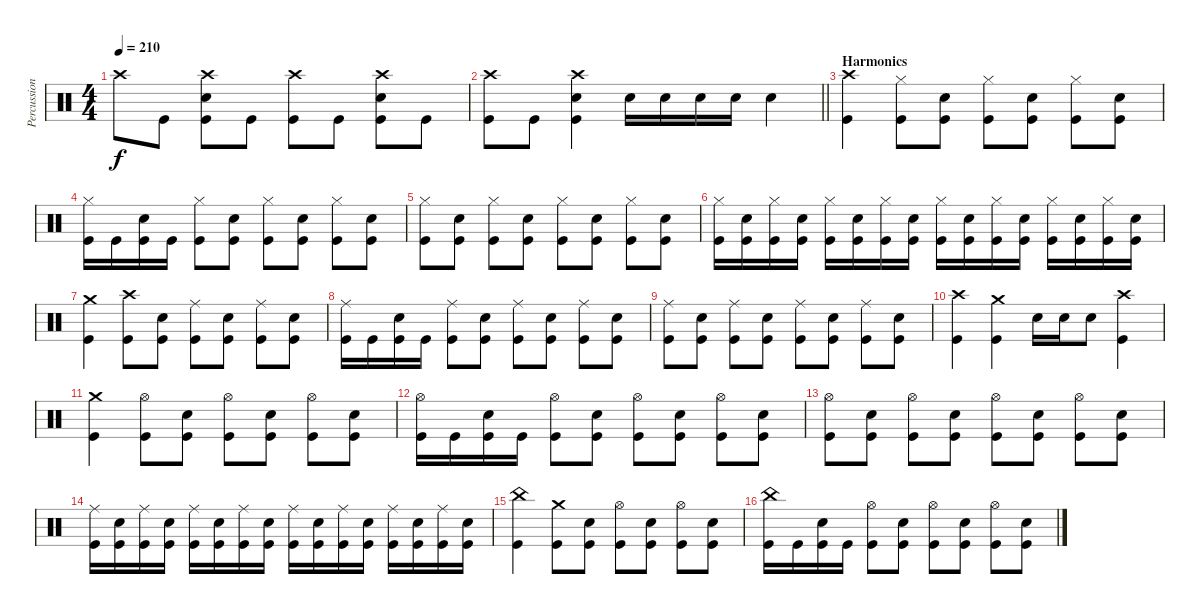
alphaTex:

\track ("Percussion" "Percussion") {instrument percussion}
\staff {score}
\articulation defaults
\ts (4 4)
\tempo 210
\clef neutral
\ks c "Crash high (hit)".8{dy f} "Kick (hit)".8
("Crash high (hit)" "Electric Snare (hit)" "Kick (hit)").8 "Kick (hit)".8 ("Crash high (hit)" "Kick (hit)").8 "Kick (hit)".8 ("Crash high (hit)" "Electric Snare (hit)" "Kick (hit)").8 "Kick (hit)".8 |
\barLineRight lightlight
("Crash high (hit)" "Kick (hit)").8 "Kick (hit)".8 ("Crash high (hit)" "Electric Snare (hit)" "Kick (hit)").4 "Electric Snare (hit)".16 "Electric Snare (hit)".16 "Electric Snare (hit)".16 "Electric Snare (hit)".16 "Electric Snare (hit)".4 |
\section ("" "Harmonics")
("Crash high (hit)" "Kick (hit)").4 ("Hi-Hat (closed)" "Kick (hit)").8 ("Electric Snare (hit)" "Kick (hit)").8 ("Hi-Hat (closed)" "Kick (hit)").8 ("Electric Snare (hit)" "Kick (hit)").8 ("Hi-Hat (closed)" "Kick (hit)").8 ("Electric Snare (hit)" "Kick (hit)").8 |
("Hi-Hat (closed)" "Kick (hit)").16 "Kick (hit)".16 ("Electric Snare (hit)" "Kick (hit)").16 "Kick (hit)".16 ("Hi-Hat (closed)" "Kick (hit)").8 ("Electric Snare (hit)" "Kick (hit)").8 ("Hi-Hat (closed)" "Kick (hit)").8 ("Electric Snare (hit)" "Kick (hit)").8 ("Hi-Hat (closed)" "Kick (hit)").8 ("Electric Snare (hit)" "Kick (hit)").8 |
("Hi-Hat (closed)" "Kick (hit)").8 ("Electric Snare (hit)" "Kick (hit)").8 ("Hi-Hat (closed)" "Kick (hit)").8 ("Electric Snare (hit)" "Kick (hit)").8 ("Hi-Hat (closed)" "Kick (hit)").8 ("Electric Snare (hit)" "Kick (hit)").8 ("Hi-Hat (closed)" "Kick (hit)").8 ("Electric Snare (hit)" "Kick (hit)").8 |
("Hi-Hat (closed)" "Kick (hit)").16 ("Electric Snare (hit)" "Kick (hit)").16 ("Hi-Hat (closed)" "Kick (hit)").16 ("Electric Snare (hit)" "Kick (hit)").16 ("Hi-Hat (closed)" "Kick (hit)").16 ("Electric Snare (hit)" "Kick (hit)").16 ("Hi-Hat (closed)" "Kick (hit)").16 ("Electric Snare (hit)" "Kick (hit)").16 ("Hi-Hat (closed)" "Kick (hit)").16 ("Electric Snare (hit)" "Kick (hit)").16 ("Hi-Hat (closed)" "Kick (hit)").16 ("Electric Snare (hit)" "Kick (hit)").16 ("Hi-Hat (closed)" "Kick (hit)").16 ("Electric Snare (hit)" "Kick (hit)").16 ("Hi-Hat (closed)" "Kick (hit)").16 ("Electric Snare (hit)" "Kick (hit)").16 |
("Crash medium (hit)" "Kick (hit)").4 ("Crash high (hit)" "Kick (hit)").8 ("Electric Snare (hit)" "Kick (hit)").8 ("Ride (middle)" "Kick (hit)").8 ("Electric Snare (hit)" "Kick (hit)").8 ("Ride (middle)" "Kick (hit)").8 ("Electric Snare (hit)" "Kick (hit)").8 |
("Ride (middle)" "Kick (hit)").16 "Kick (hit)".16 ("Electric Snare (hit)" "Kick (hit)").16 "Kick (hit)".16 ("Ride (middle)" "Kick (hit)").8 ("Electric Snare (hit)" "Kick (hit)").8 ("Ride (middle)" "Kick (hit)").8 ("Electric Snare (hit)" "Kick (hit)").8 ("Ride (middle)" "Kick (hit)").8 ("Electric Snare (hit)" "Kick (hit)").8 |
("Ride (middle)" "Kick (hit)").8 ("Electric Snare (hit)" "Kick (hit)").8 ("Ride (middle)" "Kick (hit)").8 ("Electric Snare (hit)" "Kick (hit)").8 ("Ride (middle)" "Kick (hit)").8 ("Electric Snare (hit)" "Kick (hit)").8 ("Ride (middle)" "Kick (hit)").8 ("Electric Snare (hit)" "Kick (hit)").8 |
("Crash high (hit)" "Kick (hit)").4 ("Crash medium (hit)" "Kick (hit)").4 "Electric Snare (hit)".16 "Electric Snare (hit)".16 "Electric Snare (hit)".8 ("Crash high (hit)" "Kick (hit)").4 |
("Crash medium (hit)" "Kick (hit)").4 ("Hi-Hat (open)" "Kick (hit)").8 ("Electric Snare (hit)" "Kick (hit)").8 ("Hi-Hat (open)" "Kick (hit)").8 ("Electric Snare (hit)" "Kick (hit)").8 ("Hi-Hat (open)" "Kick (hit)").8 ("Electric Snare (hit)" "Kick (hit)").8 |
("Hi-Hat (open)" "Kick (hit)").16 "Kick (hit)".16 ("Electric Snare (hit)" "Kick (hit)").16 "Kick (hit)".16 ("Hi-Hat (open)" "Kick (hit)").8 ("Electric Snare (hit)" "Kick (hit)").8 ("Hi-Hat (open)" "Kick (hit)").8 ("Electric Snare (hit)" "Kick (hit)").8 ("Hi-Hat (open)" "Kick (hit)").8 ("Electric Snare (hit)" "Kick (hit)").8 |
("Hi-Hat (open)" "Kick (hit)").8 ("Electric Snare (hit)" "Kick (hit)").8 ("Hi-Hat (open)" "Kick (hit)").8 ("Electric Snare (hit)" "Kick (hit)").8 ("Hi-Hat (open)" "Kick (hit)").8 ("Electric Snare (hit)" "Kick (hit)").8 ("Hi-Hat (open)" "Kick (hit)").8 ("Electric Snare (hit)" "Kick (hit)").8 |
("Ride (middle)" "Kick (hit)").16 ("Electric Snare (hit)" "Kick (hit)").16 ("Ride (middle)" "Kick (hit)").16 ("Electric Snare (hit)" "Kick (hit)").16 ("Ride (middle)" "Kick (hit)").16 ("Electric Snare (hit)" "Kick (hit)").16 ("Ride (middle)" "Kick (hit)").16 ("Electric Snare (hit)" "Kick (hit)").16 ("Ride (middle)" "Kick (hit)").16 ("Electric Snare (hit)" "Kick (hit)").16 ("Ride (middle)" "Kick (hit)").16 ("Electric Snare (hit)" "Kick (hit)").16 ("Ride (middle)" "Kick (hit)").16 ("Electric Snare (hit)" "Kick (hit)").16 ("Ride (middle)" "Kick (hit)").16 ("Electric Snare (hit)" "Kick (hit)").16 |
("China (hit)" "Kick (hit)").4 ("Crash medium (hit)" "Kick (hit)").8 ("Electric Snare (hit)" "Kick (hit)").8 ("Hi-Hat (open)" "Kick (hit)").8 ("Electric Snare (hit)" "Kick (hit)").8 ("Hi-Hat (open)" "Kick (hit)").8 ("Electric Snare (hit)" "Kick (hit)").8 |
("China (hit)" "Kick (hit)").16 "Kick (hit)".16 ("Electric Snare (hit)" "Kick (hit)").16 "Kick (hit)".16 ("Hi-Hat (open)" "Kick (hit)").8 ("Electric Snare (hit)" "Kick (hit)").8 ("Hi-Hat (open)" "Kick (hit)").8 ("Electric Snare (hit)" "Kick (hit)").8 ("Hi-Hat (open)" "Kick (hit)").8 ("Electric Snare (hit)" "Kick (hit)").8
